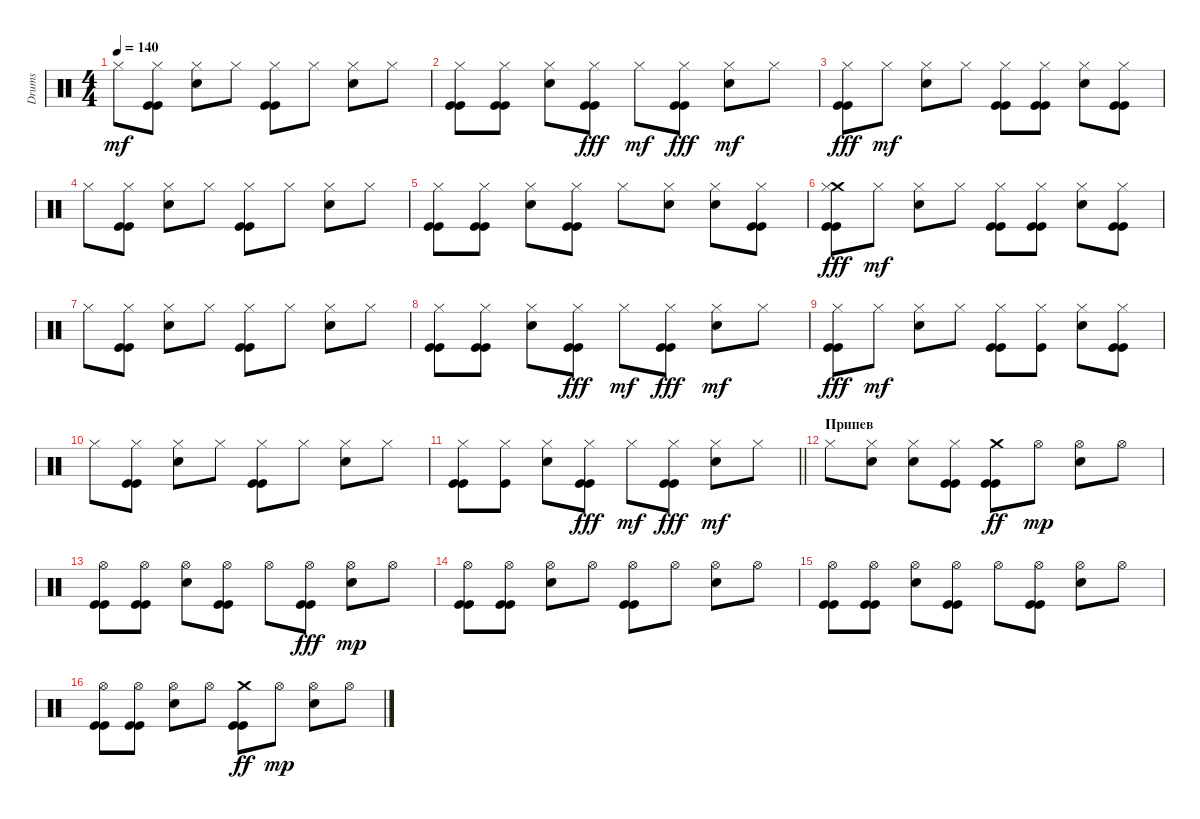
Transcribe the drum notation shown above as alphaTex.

\track ("Drums" "Drums") {instrument percussion}
\staff {score}
\articulation defaults
\ts (4 4)
\tempo 140
\clef neutral
\ks c "Hi-Hat (closed)".8{dy mf}
("Kick (hit)" "Kick (hit)" "Hi-Hat (closed)").8 ("Electric Snare (hit)" "Hi-Hat (closed)").8 "Hi-Hat (closed)".8 ("Kick (hit)" "Kick (hit)" "Hi-Hat (closed)").8 "Hi-Hat (closed)".8 ("Electric Snare (hit)" "Hi-Hat (closed)").8 "Hi-Hat (closed)".8 |
("Kick (hit)" "Kick (hit)" "Hi-Hat (closed)").8 ("Kick (hit)" "Kick (hit)" "Hi-Hat (closed)").8 ("Electric Snare (hit)" "Hi-Hat (closed)").8 ("Kick (hit)" "Hi-Hat (closed)" "Kick (hit)").8{dy fff} "Hi-Hat (closed)".8{dy mf} ("Kick (hit)" "Hi-Hat (closed)" "Kick (hit)").8{dy fff} ("Electric Snare (hit)" "Hi-Hat (closed)").8{dy mf} "Hi-Hat (closed)".8 |
("Kick (hit)" "Hi-Hat (closed)" "Kick (hit)").8{dy fff} "Hi-Hat (closed)".8{dy mf} ("Electric Snare (hit)" "Hi-Hat (closed)").8 "Hi-Hat (closed)".8 ("Kick (hit)" "Kick (hit)" "Hi-Hat (closed)").8 ("Kick (hit)" "Kick (hit)" "Hi-Hat (closed)").8 ("Electric Snare (hit)" "Hi-Hat (closed)").8 ("Kick (hit)" "Kick (hit)" "Hi-Hat (closed)").8 |
"Hi-Hat (closed)".8 ("Kick (hit)" "Kick (hit)" "Hi-Hat (closed)").8 ("Electric Snare (hit)" "Hi-Hat (closed)").8 "Hi-Hat (closed)".8 ("Kick (hit)" "Kick (hit)" "Hi-Hat (closed)").8 "Hi-Hat (closed)".8 ("Electric Snare (hit)" "Hi-Hat (closed)").8 "Hi-Hat (closed)".8 |
("Kick (hit)" "Kick (hit)" "Hi-Hat (closed)").8 ("Kick (hit)" "Kick (hit)" "Hi-Hat (closed)").8 ("Electric Snare (hit)" "Hi-Hat (closed)").8 ("Kick (hit)" "Kick (hit)" "Hi-Hat (closed)").8 "Hi-Hat (closed)".8 ("Electric Snare (hit)" "Hi-Hat (closed)").8 ("Electric Snare (hit)" "Hi-Hat (closed)").8 ("Kick (hit)" "Kick (hit)" "Hi-Hat (closed)").8 |
("Kick (hit)" "Crash medium (hit)" "Hi-Hat (closed)" "Kick (hit)").8{dy fff} "Hi-Hat (closed)".8{dy mf} ("Electric Snare (hit)" "Hi-Hat (closed)").8 "Hi-Hat (closed)".8 ("Kick (hit)" "Kick (hit)" "Hi-Hat (closed)").8 ("Kick (hit)" "Kick (hit)" "Hi-Hat (closed)").8 ("Electric Snare (hit)" "Hi-Hat (closed)").8 ("Kick (hit)" "Kick (hit)" "Hi-Hat (closed)").8 |
"Hi-Hat (closed)".8 ("Kick (hit)" "Kick (hit)" "Hi-Hat (closed)").8 ("Electric Snare (hit)" "Hi-Hat (closed)").8 "Hi-Hat (closed)".8 ("Kick (hit)" "Kick (hit)" "Hi-Hat (closed)").8 "Hi-Hat (closed)".8 ("Electric Snare (hit)" "Hi-Hat (closed)").8 "Hi-Hat (closed)".8 |
("Kick (hit)" "Kick (hit)" "Hi-Hat (closed)").8 ("Kick (hit)" "Kick (hit)" "Hi-Hat (closed)").8 ("Electric Snare (hit)" "Hi-Hat (closed)").8 ("Kick (hit)" "Hi-Hat (closed)" "Kick (hit)").8{dy fff} "Hi-Hat (closed)".8{dy mf} ("Kick (hit)" "Hi-Hat (closed)" "Kick (hit)").8{dy fff} ("Electric Snare (hit)" "Hi-Hat (closed)").8{dy mf} "Hi-Hat (closed)".8 |
("Kick (hit)" "Hi-Hat (closed)" "Kick (hit)").8{dy fff} "Hi-Hat (closed)".8{dy mf} ("Electric Snare (hit)" "Hi-Hat (closed)").8 "Hi-Hat (closed)".8 ("Kick (hit)" "Kick (hit)" "Hi-Hat (closed)").8 ("Kick (hit)" "Hi-Hat (closed)").8 ("Electric Snare (hit)" "Hi-Hat (closed)").8 ("Kick (hit)" "Kick (hit)" "Hi-Hat (closed)").8 |
"Hi-Hat (closed)".8 ("Kick (hit)" "Kick (hit)" "Hi-Hat (closed)").8 ("Electric Snare (hit)" "Hi-Hat (closed)").8 "Hi-Hat (closed)".8 ("Kick (hit)" "Kick (hit)" "Hi-Hat (closed)").8 "Hi-Hat (closed)".8 ("Electric Snare (hit)" "Hi-Hat (closed)").8 "Hi-Hat (closed)".8 |
\barLineRight lightlight
("Kick (hit)" "Kick (hit)" "Hi-Hat (closed)").8 ("Kick (hit)" "Hi-Hat (closed)").8 ("Electric Snare (hit)" "Hi-Hat (closed)").8 ("Kick (hit)" "Hi-Hat (closed)" "Kick (hit)").8{dy fff} "Hi-Hat (closed)".8{dy mf} ("Kick (hit)" "Hi-Hat (closed)" "Kick (hit)").8{dy fff} ("Electric Snare (hit)" "Hi-Hat (closed)").8{dy mf} "Hi-Hat (closed)".8 |
\section ("" "Припев")
"Hi-Hat (closed)".8 ("Electric Snare (hit)" "Hi-Hat (closed)").8 ("Electric Snare (hit)" "Hi-Hat (closed)").8 ("Kick (hit)" "Kick (hit)" "Hi-Hat (closed)").8 ("Kick (hit)" "Kick (hit)" "Crash medium (hit)").8{dy ff} "Hi-Hat (open)".8{dy mp} ("Electric Snare (hit)" "Hi-Hat (open)").8 "Hi-Hat (open)".8 |
("Kick (hit)" "Kick (hit)" "Hi-Hat (open)").8 ("Kick (hit)" "Kick (hit)" "Hi-Hat (open)").8 ("Electric Snare (hit)" "Hi-Hat (open)").8 ("Kick (hit)" "Kick (hit)" "Hi-Hat (open)").8 "Hi-Hat (open)".8 ("Kick (hit)" "Hi-Hat (open)" "Kick (hit)").8{dy fff} ("Electric Snare (hit)" "Hi-Hat (open)").8{dy mp} "Hi-Hat (open)".8 |
("Kick (hit)" "Kick (hit)" "Hi-Hat (open)").8 ("Kick (hit)" "Kick (hit)" "Hi-Hat (open)").8 ("Electric Snare (hit)" "Hi-Hat (open)").8 "Hi-Hat (open)".8 ("Kick (hit)" "Kick (hit)" "Hi-Hat (open)").8 "Hi-Hat (open)".8 ("Electric Snare (hit)" "Hi-Hat (open)").8 "Hi-Hat (open)".8 |
("Kick (hit)" "Kick (hit)" "Hi-Hat (open)").8 ("Kick (hit)" "Kick (hit)" "Hi-Hat (open)").8 ("Electric Snare (hit)" "Hi-Hat (open)").8 ("Kick (hit)" "Kick (hit)" "Hi-Hat (open)").8 "Hi-Hat (open)".8 ("Kick (hit)" "Kick (hit)" "Hi-Hat (open)").8 ("Electric Snare (hit)" "Hi-Hat (open)").8 "Hi-Hat (open)".8 |
("Kick (hit)" "Kick (hit)" "Hi-Hat (open)").8 ("Kick (hit)" "Kick (hit)" "Hi-Hat (open)").8 ("Hi-Hat (open)" "Electric Snare (hit)").8 "Hi-Hat (open)".8 ("Kick (hit)" "Kick (hit)" "Crash medium (hit)").8{dy ff} "Hi-Hat (open)".8{dy mp} ("Electric Snare (hit)" "Hi-Hat (open)").8 "Hi-Hat (open)".8
